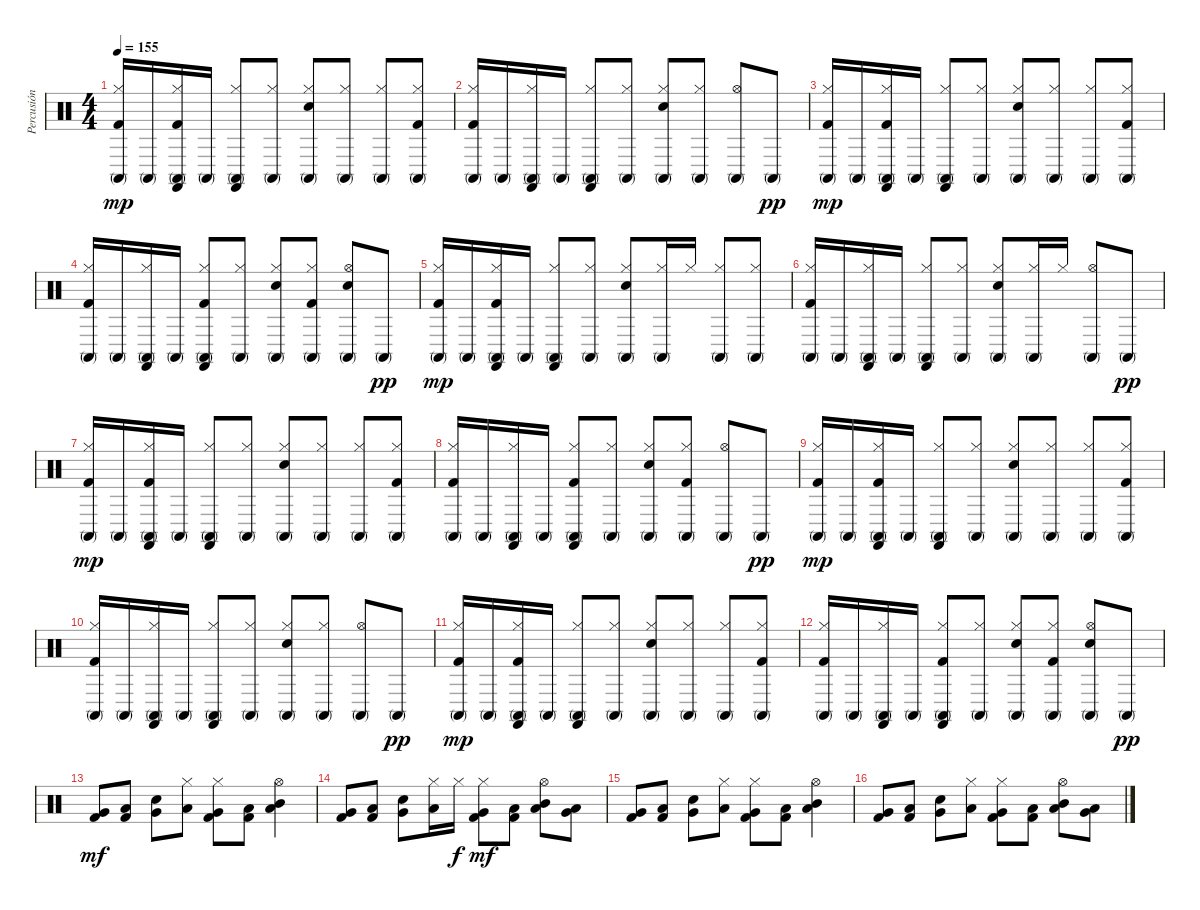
\track ("Percusión" "Percusión") {instrument percussion}
\staff {score}
\articulation defaults
\ts (4 4)
\tempo 155
\clef neutral
\ks c
("Conga high (mute)" "Hi-Hat (closed)" "Kick (hit) 2").16{dy mp} "Conga high (mute)".16 ("Castanets (hit)" "Conga high (mute)" "Hi-Hat (closed)" "Kick (hit) 2").16 "Conga high (mute)".16 ("Castanets (hit)" "Conga high (mute)" "Hi-Hat (closed)").8 ("Conga high (mute)" "Hi-Hat (closed)").8 ("Conga high (mute)" "Hi-Hat (closed)" "Snare (hit) 2").8 ("Conga high (mute)" "Hi-Hat (closed)").8 ("Conga high (mute)" "Hi-Hat (closed)").8 ("Conga high (mute)" "Hi-Hat (closed)" "Kick (hit) 2").8 |
("Conga high (mute)" "Hi-Hat (closed)" "Kick (hit) 2").16 "Conga high (mute)".16 ("Castanets (hit)" "Conga high (mute)" "Hi-Hat (closed)").16 "Conga high (mute)".16 ("Castanets (hit)" "Conga high (mute)" "Hi-Hat (closed)").8 ("Conga high (mute)" "Hi-Hat (closed)").8 ("Conga high (mute)" "Hi-Hat (closed)" "Snare (hit) 2").8 ("Conga high (mute)" "Hi-Hat (closed)").8 ("Conga high (mute)" "Hi-Hat (open)").8 "Conga high (mute)".8{dy pp} |
("Conga high (mute)" "Hi-Hat (closed)" "Kick (hit) 2").16{dy mp} "Conga high (mute)".16 ("Castanets (hit)" "Conga high (mute)" "Hi-Hat (closed)" "Kick (hit) 2").16 "Conga high (mute)".16 ("Castanets (hit)" "Conga high (mute)" "Hi-Hat (closed)").8 ("Conga high (mute)" "Hi-Hat (closed)").8 ("Conga high (mute)" "Hi-Hat (closed)" "Snare (hit) 2").8 ("Conga high (mute)" "Hi-Hat (closed)").8 ("Conga high (mute)" "Hi-Hat (closed)").8 ("Conga high (mute)" "Hi-Hat (closed)" "Kick (hit) 2").8 |
("Conga high (mute)" "Hi-Hat (closed)" "Kick (hit) 2").16 "Conga high (mute)".16 ("Castanets (hit)" "Conga high (mute)" "Hi-Hat (closed)").16 "Conga high (mute)".16 ("Castanets (hit)" "Conga high (mute)" "Hi-Hat (closed)" "Kick (hit) 2").8 ("Conga high (mute)" "Hi-Hat (closed)").8 ("Conga high (mute)" "Hi-Hat (closed)" "Snare (hit) 2").8 ("Conga high (mute)" "Hi-Hat (closed)" "Kick (hit) 2").8 ("Conga high (mute)" "Hi-Hat (open)" "Snare (hit) 2").8 "Conga high (mute)".8{dy pp} |
("Conga high (mute)" "Hi-Hat (closed)" "Kick (hit) 2").16{dy mp} "Conga high (mute)".16 ("Castanets (hit)" "Conga high (mute)" "Hi-Hat (closed)" "Kick (hit) 2").16 "Conga high (mute)".16 ("Castanets (hit)" "Conga high (mute)" "Hi-Hat (closed)").8 ("Conga high (mute)" "Hi-Hat (closed)").8 ("Conga high (mute)" "Hi-Hat (closed)" "Snare (hit) 2").8 ("Conga high (mute)" "Hi-Hat (closed)").16 "Hi-Hat (closed)".16 ("Conga high (mute)" "Hi-Hat (closed)").8 ("Conga high (mute)" "Hi-Hat (closed)").8 |
("Conga high (mute)" "Hi-Hat (closed)" "Kick (hit) 2").16 "Conga high (mute)".16 ("Castanets (hit)" "Conga high (mute)" "Hi-Hat (closed)").16 "Conga high (mute)".16 ("Castanets (hit)" "Conga high (mute)" "Hi-Hat (closed)").8 ("Conga high (mute)" "Hi-Hat (closed)").8 ("Conga high (mute)" "Hi-Hat (closed)" "Snare (hit) 2").8 ("Conga high (mute)" "Hi-Hat (closed)").16 "Hi-Hat (closed)".16 ("Conga high (mute)" "Hi-Hat (open)").8 "Conga high (mute)".8{dy pp} |
("Conga high (mute)" "Hi-Hat (closed)" "Kick (hit) 2").16{dy mp} "Conga high (mute)".16 ("Castanets (hit)" "Conga high (mute)" "Hi-Hat (closed)" "Kick (hit) 2").16 "Conga high (mute)".16 ("Castanets (hit)" "Conga high (mute)" "Hi-Hat (closed)").8 ("Conga high (mute)" "Hi-Hat (closed)").8 ("Conga high (mute)" "Hi-Hat (closed)" "Snare (hit) 2").8 ("Conga high (mute)" "Hi-Hat (closed)").8 ("Conga high (mute)" "Hi-Hat (closed)").8 ("Conga high (mute)" "Hi-Hat (closed)" "Kick (hit) 2").8 |
("Conga high (mute)" "Hi-Hat (closed)" "Kick (hit) 2").16 "Conga high (mute)".16 ("Castanets (hit)" "Conga high (mute)" "Hi-Hat (closed)").16 "Conga high (mute)".16 ("Castanets (hit)" "Conga high (mute)" "Hi-Hat (closed)" "Kick (hit) 2").8 ("Conga high (mute)" "Hi-Hat (closed)").8 ("Conga high (mute)" "Hi-Hat (closed)" "Snare (hit) 2").8 ("Conga high (mute)" "Hi-Hat (closed)" "Kick (hit) 2").8 ("Conga high (mute)" "Hi-Hat (open)").8 "Conga high (mute)".8{dy pp} |
("Conga high (mute)" "Hi-Hat (closed)" "Kick (hit) 2").16{dy mp} "Conga high (mute)".16 ("Castanets (hit)" "Conga high (mute)" "Hi-Hat (closed)" "Kick (hit) 2").16 "Conga high (mute)".16 ("Castanets (hit)" "Conga high (mute)" "Hi-Hat (closed)").8 ("Conga high (mute)" "Hi-Hat (closed)").8 ("Conga high (mute)" "Hi-Hat (closed)" "Snare (hit) 2").8 ("Conga high (mute)" "Hi-Hat (closed)").8 ("Conga high (mute)" "Hi-Hat (closed)").8 ("Conga high (mute)" "Hi-Hat (closed)" "Kick (hit) 2").8 |
("Conga high (mute)" "Hi-Hat (closed)" "Kick (hit) 2").16 "Conga high (mute)".16 ("Castanets (hit)" "Conga high (mute)" "Hi-Hat (closed)").16 "Conga high (mute)".16 ("Castanets (hit)" "Conga high (mute)" "Hi-Hat (closed)").8 ("Conga high (mute)" "Hi-Hat (closed)").8 ("Conga high (mute)" "Hi-Hat (closed)" "Snare (hit) 2").8 ("Conga high (mute)" "Hi-Hat (closed)").8 ("Conga high (mute)" "Hi-Hat (open)").8 "Conga high (mute)".8{dy pp} |
("Conga high (mute)" "Hi-Hat (closed)" "Kick (hit) 2").16{dy mp} "Conga high (mute)".16 ("Castanets (hit)" "Conga high (mute)" "Hi-Hat (closed)" "Kick (hit) 2").16 "Conga high (mute)".16 ("Castanets (hit)" "Conga high (mute)" "Hi-Hat (closed)").8 ("Conga high (mute)" "Hi-Hat (closed)").8 ("Conga high (mute)" "Hi-Hat (closed)" "Snare (hit) 2").8 ("Conga high (mute)" "Hi-Hat (closed)").8 ("Conga high (mute)" "Hi-Hat (closed)").8 ("Conga high (mute)" "Hi-Hat (closed)" "Kick (hit) 2").8 |
("Conga high (mute)" "Hi-Hat (closed)" "Kick (hit) 2").16 "Conga high (mute)".16 ("Castanets (hit)" "Conga high (mute)" "Hi-Hat (closed)").16 "Conga high (mute)".16 ("Castanets (hit)" "Conga high (mute)" "Hi-Hat (closed)" "Kick (hit) 2").8 ("Conga high (mute)" "Hi-Hat (closed)").8 ("Conga high (mute)" "Hi-Hat (closed)" "Snare (hit) 2").8 ("Conga high (mute)" "Hi-Hat (closed)" "Kick (hit) 2").8 ("Conga high (mute)" "Hi-Hat (open)" "Snare (hit) 2").8 "Conga high (mute)".8{dy pp} |
("Kick (hit) 2" "Very Low Tom (hit)").8{dy mf} ("Kick (hit) 2" "Low Floor Tom (hit)").8 ("Snare (hit) 2" "Very Low Tom (hit)").8 ("Hi-Hat (closed)" "Low Tom (hit)").8 ("Hi-Hat (closed)" "Kick (hit) 2" "Very Low Tom (hit)").8 ("Kick (hit) 2" "Low Floor Tom (hit)").8 ("Hi-Hat (open)" "Mid Tom (hit)" "Low Floor Tom (hit)").4 |
("Kick (hit) 2" "Very Low Tom (hit)").8 ("Kick (hit) 2" "Low Floor Tom (hit)").8 ("Snare (hit) 2" "Very Low Tom (hit)").8 ("Hi-Hat (closed)" "Low Tom (hit)").16 "Hi-Hat (closed)".16{dy f} ("Hi-Hat (closed)" "Kick (hit) 2" "Very Low Tom (hit)").8{dy mf} ("Kick (hit) 2" "Low Floor Tom (hit)").8 ("Hi-Hat (open)" "Mid Tom (hit)" "Low Floor Tom (hit)").8 ("Low Tom (hit)" "Very Low Tom (hit)").8 |
("Kick (hit) 2" "Very Low Tom (hit)").8 ("Kick (hit) 2" "Low Floor Tom (hit)").8 ("Snare (hit) 2" "Very Low Tom (hit)").8 ("Hi-Hat (closed)" "Low Tom (hit)").8 ("Hi-Hat (closed)" "Kick (hit) 2" "Very Low Tom (hit)").8 ("Kick (hit) 2" "Low Floor Tom (hit)").8 ("Hi-Hat (open)" "Mid Tom (hit)" "Low Floor Tom (hit)").4 |
("Kick (hit) 2" "Very Low Tom (hit)").8 ("Kick (hit) 2" "Low Floor Tom (hit)").8 ("Snare (hit) 2" "Very Low Tom (hit)").8 ("Hi-Hat (closed)" "Low Tom (hit)").8 ("Hi-Hat (closed)" "Kick (hit) 2" "Very Low Tom (hit)").8 ("Kick (hit) 2" "Low Floor Tom (hit)").8 ("Hi-Hat (open)" "Mid Tom (hit)" "Low Floor Tom (hit)").8 ("Low Tom (hit)" "Very Low Tom (hit)").8
